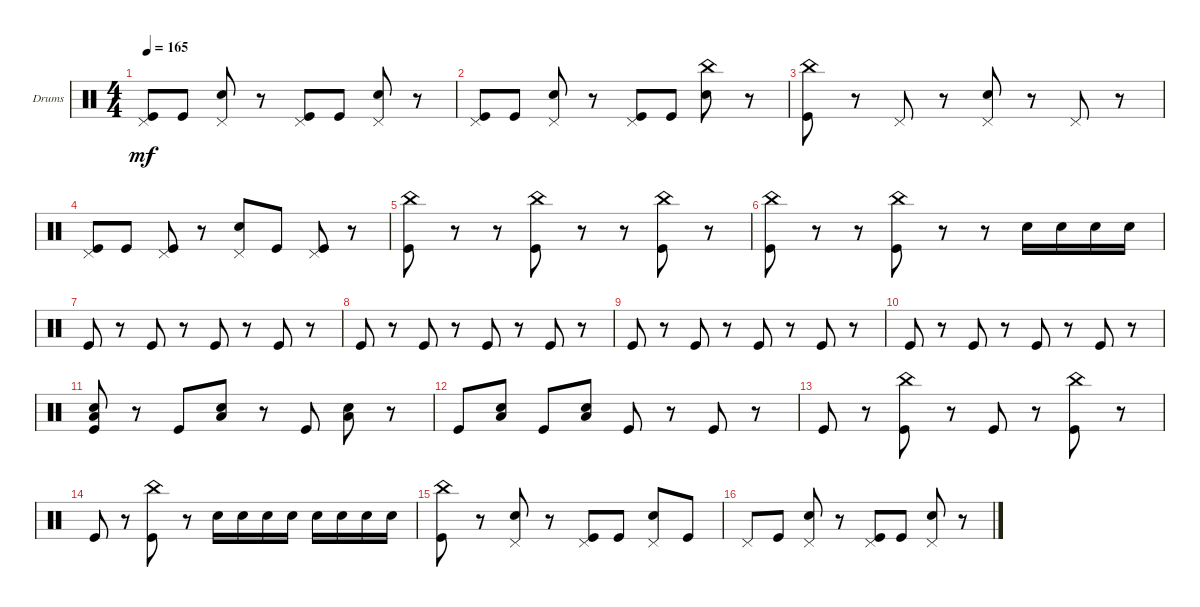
\defaultSystemsLayout 4
\bracketExtendMode groupsimilarinstruments
\firstSystemTrackNameOrientation horizontal
\otherSystemsTrackNameOrientation horizontal
\track ("Drumkit" "Drums") {instrument percussion}
\staff {score}
\articulation defaults
\ts (4 4)
\tempo 165
\clef neutral
\ks c
("Pedal Hi-Hat (hit)" "Kick (hit)").8{dy mf} "Kick (hit)".8 ("Pedal Hi-Hat (hit)" "Snare (hit) 2").8 r.8 ("Pedal Hi-Hat (hit)" "Kick (hit)").8 "Kick (hit)".8 ("Pedal Hi-Hat (hit)" "Snare (hit) 2").8 r.8 |
("Pedal Hi-Hat (hit)" "Kick (hit)").8 "Kick (hit)".8 ("Pedal Hi-Hat (hit)" "Snare (hit) 2").8 r.8 ("Pedal Hi-Hat (hit)" "Kick (hit)").8 "Kick (hit)".8 ("Snare (hit) 2" "China (hit)").8 r.8 |
("Kick (hit)" "China (hit)").8 r.8 "Pedal Hi-Hat (hit)".8 r.8 ("Snare (hit) 2" "Pedal Hi-Hat (hit)").8 r.8 "Pedal Hi-Hat (hit)".8 r.8 |
("Pedal Hi-Hat (hit)" "Kick (hit)").8 "Kick (hit)".8 ("Kick (hit)" "Pedal Hi-Hat (hit)").8 r.8 ("Snare (hit) 2" "Pedal Hi-Hat (hit)").8 "Kick (hit)".8 ("Pedal Hi-Hat (hit)" "Kick (hit)").8 r.8 |
("Kick (hit)" "China (hit)").8 r.8 r.8 ("China (hit)" "Kick (hit)").8 r.8 r.8 ("China (hit)" "Kick (hit)").8 r.8 |
("China (hit)" "Kick (hit)").8 r.8 r.8 ("China (hit)" "Kick (hit)").8 r.8 r.8 "Snare (hit) 2".16 "Snare (hit) 2".16 "Snare (hit) 2".16 "Snare (hit) 2".16 |
"Kick (hit)".8 r.8 "Kick (hit)".8 r.8 "Kick (hit)".8 r.8 "Kick (hit)".8 r.8 |
"Kick (hit)".8 r.8 "Kick (hit)".8 r.8 "Kick (hit)".8 r.8 "Kick (hit)".8 r.8 |
"Kick (hit)".8 r.8 "Kick (hit)".8 r.8 "Kick (hit)".8 r.8 "Kick (hit)".8 r.8 |
"Kick (hit)".8 r.8 "Kick (hit)".8 r.8 "Kick (hit)".8 r.8 "Kick (hit)".8 r.8 |
("Kick (hit)" "Snare (hit) 2" "Low Tom (hit)").8 r.8 "Kick (hit)".8 ("Low Tom (hit)" "Snare (hit) 2").8 r.8 "Kick (hit)".8 ("Low Tom (hit)" "Snare (hit) 2").8 r.8 |
"Kick (hit)".8 ("Low Tom (hit)" "Snare (hit) 2").8 "Kick (hit)".8 ("Snare (hit) 2" "Low Tom (hit)").8 "Kick (hit)".8 r.8 "Kick (hit)".8 r.8 |
"Kick (hit)".8 r.8 ("Kick (hit)" "China (hit)").8 r.8 "Kick (hit)".8 r.8 ("Kick (hit)" "China (hit)").8 r.8 |
"Kick (hit)".8 r.8 ("Kick (hit)" "China (hit)").8 r.8 "Snare (hit) 2".16 "Snare (hit) 2".16 "Snare (hit) 2".16 "Snare (hit) 2".16 "Snare (hit) 2".16 "Snare (hit) 2".16 "Snare (hit) 2".16 "Snare (hit) 2".16 |
("Kick (hit)" "China (hit)").8 r.8 ("Snare (hit) 2" "Pedal Hi-Hat (hit)").8 r.8 ("Kick (hit)" "Pedal Hi-Hat (hit)").8 "Kick (hit)".8 ("Snare (hit) 2" "Pedal Hi-Hat (hit)").8 "Kick (hit)".8 |
"Pedal Hi-Hat (hit)".8 "Kick (hit)".8 ("Snare (hit) 2" "Pedal Hi-Hat (hit)").8 r.8 ("Kick (hit)" "Pedal Hi-Hat (hit)").8 "Kick (hit)".8 ("Snare (hit) 2" "Pedal Hi-Hat (hit)").8 r.8
